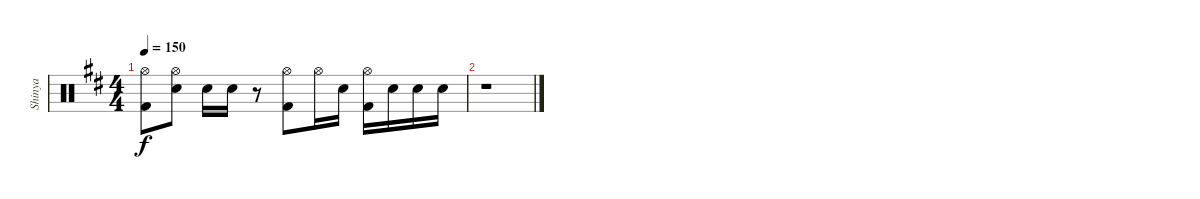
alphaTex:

\track ("Shinya" "Shinya") {instrument percussion}
\staff {score}
\articulation defaults
\ts (4 4)
\tempo 150
\clef neutral
\ks d
("Hi-Hat (open)" "Kick (hit) 2").8{dy f} ("Hi-Hat (open)" "Snare (hit) 2").8 "Snare (hit) 2".16 "Snare (hit) 2".16 r.8 ("Hi-Hat (open)" "Kick (hit) 2").8 "Hi-Hat (open)".16 "Snare (hit) 2".16 ("Hi-Hat (open)" "Kick (hit) 2").16 "Snare (hit) 2".16 "Snare (hit) 2".16 "Snare (hit) 2".16 |
r.1
